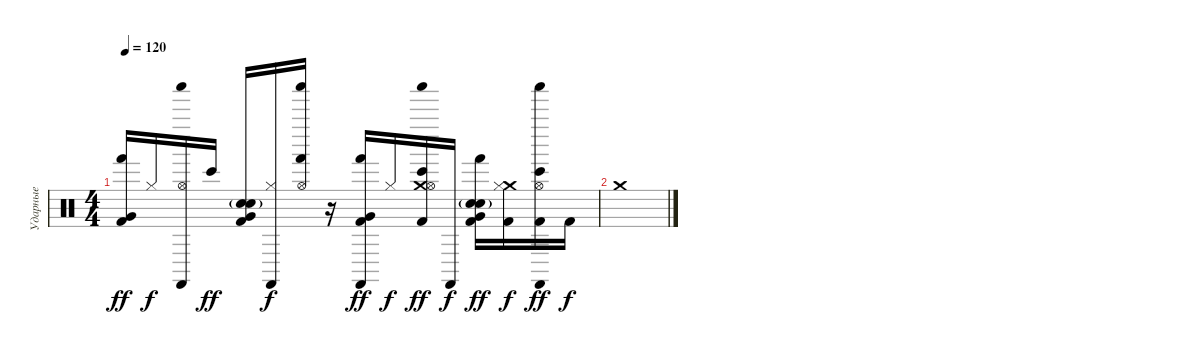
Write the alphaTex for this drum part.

\track ("Ударные" "Ударные") {instrument percussion}
\staff {score}
\articulation defaults
\ts (4 4)
\tempo 120
\clef neutral
\ks c
("Kick (hit) 2" "Very Low Tom (hit)" "Hand (hit)").16{dy ff} "Hi-Hat (closed)".16{dy f} ("Castanets (hit)" "Shaker (hit)" "Hi-Hat (open)").16 "Bongo High (hit)".16{dy ff} ("Kick (hit) 2" "Hand Clap (hit)"{g} "Snare (hit) 2" "Very Low Tom (hit)").16 ("Castanets (hit)" "Hi-Hat (closed)").16{dy f} ("Shaker (hit)" "Hi-Hat (open)" "Hand (hit)").16 r.16 ("Kick (hit) 2" "Castanets (hit)" "Very Low Tom (hit)" "Hand (hit)").16{dy ff} "Hi-Hat (closed)".16{dy f} ("Kick (hit) 2" "Crash medium (hit)" "Shaker (hit)" "Hi-Hat (open)" "Bongo High (hit)").16{dy ff} "Castanets (hit)".16{dy f} ("Kick (hit) 2" "Hand Clap (hit)"{g} "Snare (hit) 2" "Very Low Tom (hit)" "Hand (hit)").16{dy ff} ("Kick (hit) 2" "Crash medium (hit)" "Hi-Hat (closed)").16{dy f} ("Kick (hit) 2" "Castanets (hit)" "Shaker (hit)" "Hi-Hat (open)" "Bongo High (hit)").16{dy ff} "Kick (hit) 2".16{dy f} |
"Crash medium (hit)".1
